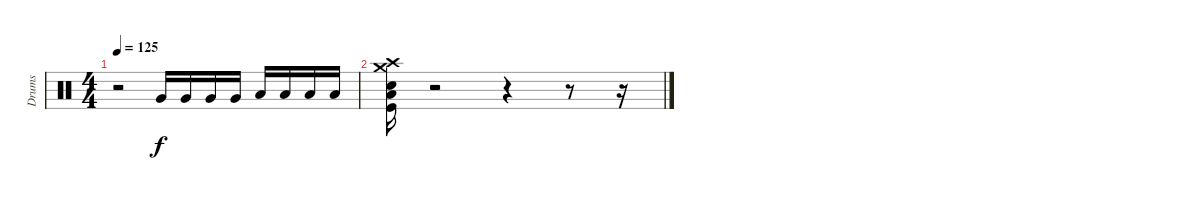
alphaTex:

\track ("Drums" "Drums") {instrument percussion}
\staff {score}
\articulation defaults
\ts (4 4)
\tempo 125
\clef neutral
\ks c
r.2{dy f} "Very Low Tom (hit)".16 "Very Low Tom (hit)".16 "Very Low Tom (hit)".16 "Very Low Tom (hit)".16 "Low Floor Tom (hit)".16 "Low Floor Tom (hit)".16 "Low Floor Tom (hit)".16 "Low Floor Tom (hit)".16 |
("Low Floor Tom (hit)" "Kick (hit)" "Snare (hit) 2" "Crash medium (hit)" "Crash high (hit)").16 r.2 r.4 r.8 r.16
